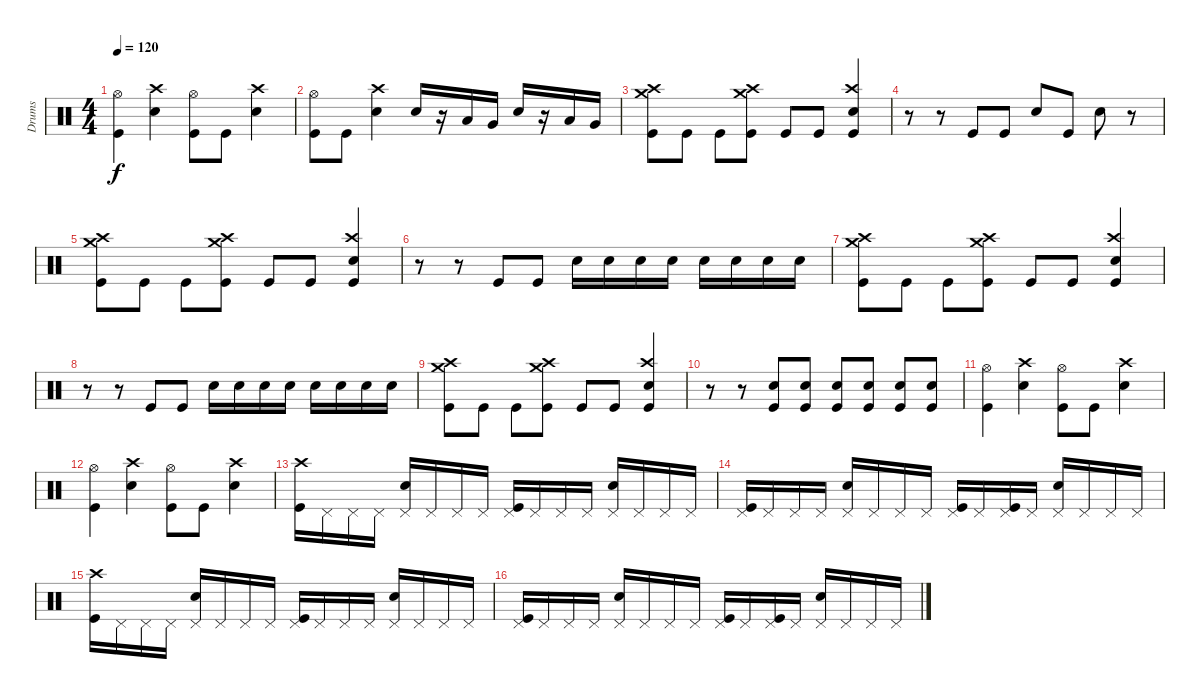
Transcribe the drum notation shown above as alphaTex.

\track ("Drums" "Drums") {instrument percussion}
\staff {score}
\articulation defaults
\ts (4 4)
\tempo 120
\clef neutral
\ks c
("Hi-Hat (open)" "Kick (hit)").4{dy f} ("Crash high (hit)" "Snare (hit) 2").4 ("Hi-Hat (open)" "Kick (hit)").8 "Kick (hit)".8 ("Crash high (hit)" "Snare (hit) 2").4 |
("Hi-Hat (open)" "Kick (hit)").8 "Kick (hit)".8 ("Crash high (hit)" "Snare (hit) 2").4 "Snare (hit) 2".16 r.16 "Low Tom (hit)".16 "Very Low Tom (hit)".16 "Snare (hit) 2".16 r.16 "Low Tom (hit)".16 "Very Low Tom (hit)".16 |
("Crash high (hit)" "Crash medium (hit)" "Kick (hit)").8 "Kick (hit)".8 "Kick (hit)".8 ("Crash high (hit)" "Crash medium (hit)" "Kick (hit)").8 "Kick (hit)".8 "Kick (hit)".8 ("Crash high (hit)" "Snare (hit) 2" "Kick (hit)").4 |
r.8 r.8 "Kick (hit)".8 "Kick (hit)".8 "Snare (hit) 2".8 "Kick (hit)".8 "Snare (hit) 2".8 r.8 |
("Crash high (hit)" "Crash medium (hit)" "Kick (hit)").8 "Kick (hit)".8 "Kick (hit)".8 ("Crash high (hit)" "Crash medium (hit)" "Kick (hit)").8 "Kick (hit)".8 "Kick (hit)".8 ("Crash high (hit)" "Snare (hit) 2" "Kick (hit)").4 |
r.8 r.8 "Kick (hit)".8 "Kick (hit)".8 "Snare (hit) 2".16 "Snare (hit) 2".16 "Snare (hit) 2".16 "Snare (hit) 2".16 "Snare (hit) 2".16 "Snare (hit) 2".16 "Snare (hit) 2".16 "Snare (hit) 2".16 |
("Crash high (hit)" "Crash medium (hit)" "Kick (hit)").8 "Kick (hit)".8 "Kick (hit)".8 ("Crash high (hit)" "Crash medium (hit)" "Kick (hit)").8 "Kick (hit)".8 "Kick (hit)".8 ("Crash high (hit)" "Snare (hit) 2" "Kick (hit)").4 |
r.8 r.8 "Kick (hit)".8 "Kick (hit)".8 "Snare (hit) 2".16 "Snare (hit) 2".16 "Snare (hit) 2".16 "Snare (hit) 2".16 "Snare (hit) 2".16 "Snare (hit) 2".16 "Snare (hit) 2".16 "Snare (hit) 2".16 |
("Crash high (hit)" "Crash medium (hit)" "Kick (hit)").8 "Kick (hit)".8 "Kick (hit)".8 ("Crash high (hit)" "Crash medium (hit)" "Kick (hit)").8 "Kick (hit)".8 "Kick (hit)".8 ("Crash high (hit)" "Snare (hit) 2" "Kick (hit)").4 |
r.8 r.8 ("Snare (hit) 2" "Kick (hit)").8 ("Snare (hit) 2" "Kick (hit)").8 ("Snare (hit) 2" "Kick (hit)").8 ("Snare (hit) 2" "Kick (hit)").8 ("Snare (hit) 2" "Kick (hit)").8 ("Snare (hit) 2" "Kick (hit)").8 |
("Hi-Hat (open)" "Kick (hit)").4 ("Crash high (hit)" "Snare (hit) 2").4 ("Hi-Hat (open)" "Kick (hit)").8 "Kick (hit)".8 ("Crash high (hit)" "Snare (hit) 2").4 |
("Hi-Hat (open)" "Kick (hit)").4 ("Crash high (hit)" "Snare (hit) 2").4 ("Hi-Hat (open)" "Kick (hit)").8 "Kick (hit)".8 ("Crash high (hit)" "Snare (hit) 2").4 |
("Crash high (hit)" "Kick (hit)").16 "Pedal Hi-Hat (hit)".16 "Pedal Hi-Hat (hit)".16 "Pedal Hi-Hat (hit)".16 ("Pedal Hi-Hat (hit)" "Snare (hit) 2").16 "Pedal Hi-Hat (hit)".16 "Pedal Hi-Hat (hit)".16 "Pedal Hi-Hat (hit)".16 ("Pedal Hi-Hat (hit)" "Kick (hit)").16 "Pedal Hi-Hat (hit)".16 "Pedal Hi-Hat (hit)".16 "Pedal Hi-Hat (hit)".16 ("Pedal Hi-Hat (hit)" "Snare (hit) 2").16 "Pedal Hi-Hat (hit)".16 "Pedal Hi-Hat (hit)".16 "Pedal Hi-Hat (hit)".16 |
("Pedal Hi-Hat (hit)" "Kick (hit)").16 "Pedal Hi-Hat (hit)".16 "Pedal Hi-Hat (hit)".16 "Pedal Hi-Hat (hit)".16 ("Pedal Hi-Hat (hit)" "Snare (hit) 2").16 "Pedal Hi-Hat (hit)".16 "Pedal Hi-Hat (hit)".16 "Pedal Hi-Hat (hit)".16 ("Pedal Hi-Hat (hit)" "Kick (hit)").16 "Pedal Hi-Hat (hit)".16 ("Pedal Hi-Hat (hit)" "Kick (hit)").16 "Pedal Hi-Hat (hit)".16 ("Pedal Hi-Hat (hit)" "Snare (hit) 2").16 "Pedal Hi-Hat (hit)".16 "Pedal Hi-Hat (hit)".16 "Pedal Hi-Hat (hit)".16 |
("Crash high (hit)" "Kick (hit)").16 "Pedal Hi-Hat (hit)".16 "Pedal Hi-Hat (hit)".16 "Pedal Hi-Hat (hit)".16 ("Pedal Hi-Hat (hit)" "Snare (hit) 2").16 "Pedal Hi-Hat (hit)".16 "Pedal Hi-Hat (hit)".16 "Pedal Hi-Hat (hit)".16 ("Pedal Hi-Hat (hit)" "Kick (hit)").16 "Pedal Hi-Hat (hit)".16 "Pedal Hi-Hat (hit)".16 "Pedal Hi-Hat (hit)".16 ("Pedal Hi-Hat (hit)" "Snare (hit) 2").16 "Pedal Hi-Hat (hit)".16 "Pedal Hi-Hat (hit)".16 "Pedal Hi-Hat (hit)".16 |
("Pedal Hi-Hat (hit)" "Kick (hit)").16 "Pedal Hi-Hat (hit)".16 "Pedal Hi-Hat (hit)".16 "Pedal Hi-Hat (hit)".16 ("Pedal Hi-Hat (hit)" "Snare (hit) 2").16 "Pedal Hi-Hat (hit)".16 "Pedal Hi-Hat (hit)".16 "Pedal Hi-Hat (hit)".16 ("Pedal Hi-Hat (hit)" "Kick (hit)").16 "Pedal Hi-Hat (hit)".16 ("Pedal Hi-Hat (hit)" "Kick (hit)").16 "Pedal Hi-Hat (hit)".16 ("Pedal Hi-Hat (hit)" "Snare (hit) 2").16 "Pedal Hi-Hat (hit)".16 "Pedal Hi-Hat (hit)".16 "Pedal Hi-Hat (hit)".16
